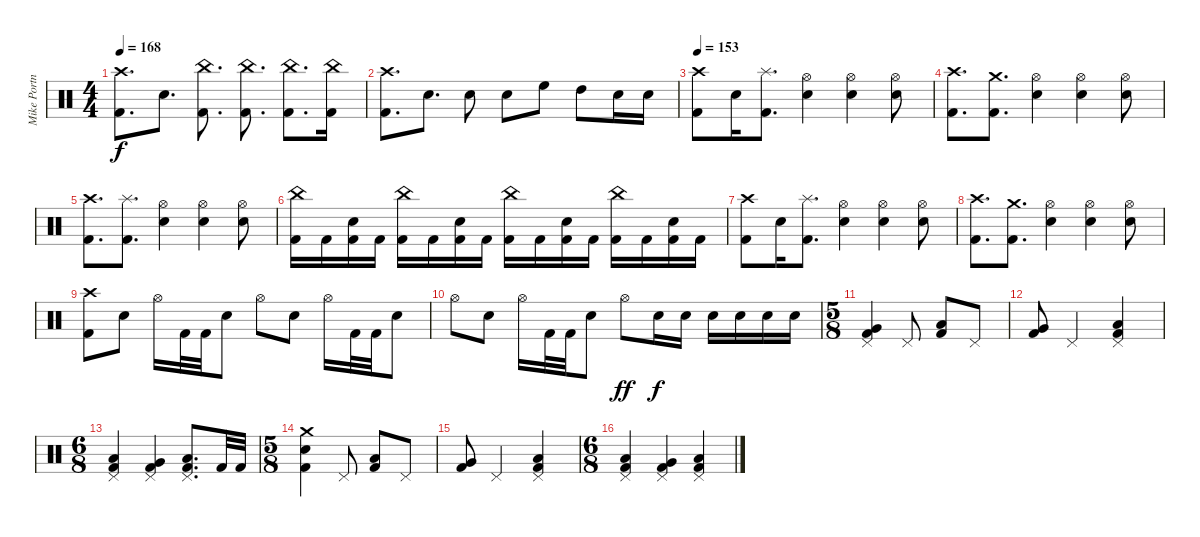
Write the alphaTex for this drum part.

\track ("Mike Portnoy Drums" "Mike Portn") {instrument percussion}
\staff {score}
\articulation defaults
\ts (4 4)
\tempo 168
\clef neutral
\ks c
("Crash high (hit)" "Kick (hit) 2").8{d dy f} "Electric Snare (hit)".8{d} ("Kick (hit) 2" "China (hit)").8{d} ("Kick (hit) 2" "China (hit)").8{d} ("China (hit)" "Kick (hit) 2").8{d} ("Kick (hit) 2" "China (hit)").16 |
("Kick (hit) 2" "Crash high (hit)").8{d} "Electric Snare (hit)".8{d} "Electric Snare (hit)".8 "Electric Snare (hit)".8 "High Floor Tom (hit)".8 "High Tom (hit)".8 "Electric Snare (hit)".16 "Electric Snare (hit)".16 |
\tempo 153
("Crash high (hit)" "Kick (hit) 2").8 "Electric Snare (hit)".16 ("Splash (hit)" "Kick (hit) 2").8{d} ("Hi-Hat (open)" "Electric Snare (hit)").4 ("Hi-Hat (open)" "Electric Snare (hit)").4 ("Hi-Hat (open)" "Electric Snare (hit)").8 |
("Kick (hit) 2" "Crash high (hit)").8{d} ("Kick (hit) 2" "Crash medium (hit)").8{d} ("Hi-Hat (open)" "Electric Snare (hit)").4 ("Hi-Hat (open)" "Electric Snare (hit)").4 ("Hi-Hat (open)" "Electric Snare (hit)").8 |
("Crash high (hit)" "Kick (hit) 2").8{d} ("Splash (hit)" "Kick (hit) 2").8{d} ("Hi-Hat (open)" "Electric Snare (hit)").4 ("Hi-Hat (open)" "Electric Snare (hit)").4 ("Hi-Hat (open)" "Electric Snare (hit)").8 |
("Kick (hit) 2" "China (hit)").16 "Kick (hit) 2".16 ("Electric Snare (hit)" "Kick (hit) 2").16 "Kick (hit) 2".16 ("Kick (hit) 2" "China (hit)").16 "Kick (hit) 2".16 ("Electric Snare (hit)" "Kick (hit) 2").16 "Kick (hit) 2".16 ("Kick (hit) 2" "China (hit)").16 "Kick (hit) 2".16 ("Electric Snare (hit)" "Kick (hit) 2").16 "Kick (hit) 2".16 ("Kick (hit) 2" "China (hit)").16 "Kick (hit) 2".16 ("Electric Snare (hit)" "Kick (hit) 2").16 "Kick (hit) 2".16 |
("Kick (hit) 2" "Crash high (hit)").8 "Electric Snare (hit)".16 ("Splash (hit)" "Kick (hit) 2").8{d} ("Hi-Hat (open)" "Electric Snare (hit)").4 ("Hi-Hat (open)" "Electric Snare (hit)").4 ("Hi-Hat (open)" "Electric Snare (hit)").8 |
("Kick (hit) 2" "Crash high (hit)").8{d} ("Kick (hit) 2" "Crash medium (hit)").8{d} ("Hi-Hat (open)" "Electric Snare (hit)").4 ("Hi-Hat (open)" "Electric Snare (hit)").4 ("Hi-Hat (open)" "Electric Snare (hit)").8 |
("Kick (hit) 2" "Crash high (hit)").8 "Electric Snare (hit)".8 "Hi-Hat (open)".16 "Kick (hit) 2".32 "Kick (hit) 2".32 "Electric Snare (hit)".8 "Hi-Hat (open)".8 "Electric Snare (hit)".8 "Hi-Hat (open)".16 "Kick (hit) 2".32 "Kick (hit) 2".32 "Electric Snare (hit)".8 |
"Hi-Hat (open)".8 "Electric Snare (hit)".8 "Hi-Hat (open)".16 "Kick (hit) 2".32 "Kick (hit) 2".32 "Electric Snare (hit)".8 "Hi-Hat (open)".8{dy ff} "Electric Snare (hit)".16{dy f} "Electric Snare (hit)".16 "Electric Snare (hit)".16 "Electric Snare (hit)".16 "Electric Snare (hit)".16 "Electric Snare (hit)".16 |
\ts (5 8)
("Kick (hit) 2" "Pedal Hi-Hat (hit)" "Very Low Tom (hit)").4 "Pedal Hi-Hat (hit)".8 ("Low Floor Tom (hit)" "Kick (hit) 2").8 "Pedal Hi-Hat (hit)".8 |
("Very Low Tom (hit)" "Kick (hit) 2").8 "Pedal Hi-Hat (hit)".4 ("Low Floor Tom (hit)" "Kick (hit) 2" "Pedal Hi-Hat (hit)").4 |
\ts (6 8)
("Kick (hit) 2" "Low Tom (hit)" "Pedal Hi-Hat (hit)").4 ("Very Low Tom (hit)" "Kick (hit) 2" "Pedal Hi-Hat (hit)").4 ("Kick (hit) 2" "Low Floor Tom (hit)" "Pedal Hi-Hat (hit)").8{d} "Kick (hit) 2".32 "Kick (hit) 2".32 |
\ts (5 8)
("Kick (hit) 2" "Electric Snare (hit)" "Crash medium (hit)").4 "Pedal Hi-Hat (hit)".8 ("Low Floor Tom (hit)" "Kick (hit) 2").8 "Pedal Hi-Hat (hit)".8 |
("Very Low Tom (hit)" "Kick (hit) 2").8 "Pedal Hi-Hat (hit)".4 ("Low Floor Tom (hit)" "Kick (hit) 2" "Pedal Hi-Hat (hit)").4 |
\ts (6 8)
("Kick (hit) 2" "Low Tom (hit)" "Pedal Hi-Hat (hit)").4 ("Very Low Tom (hit)" "Kick (hit) 2" "Pedal Hi-Hat (hit)").4 ("Pedal Hi-Hat (hit)" "Low Floor Tom (hit)" "Kick (hit) 2").4
